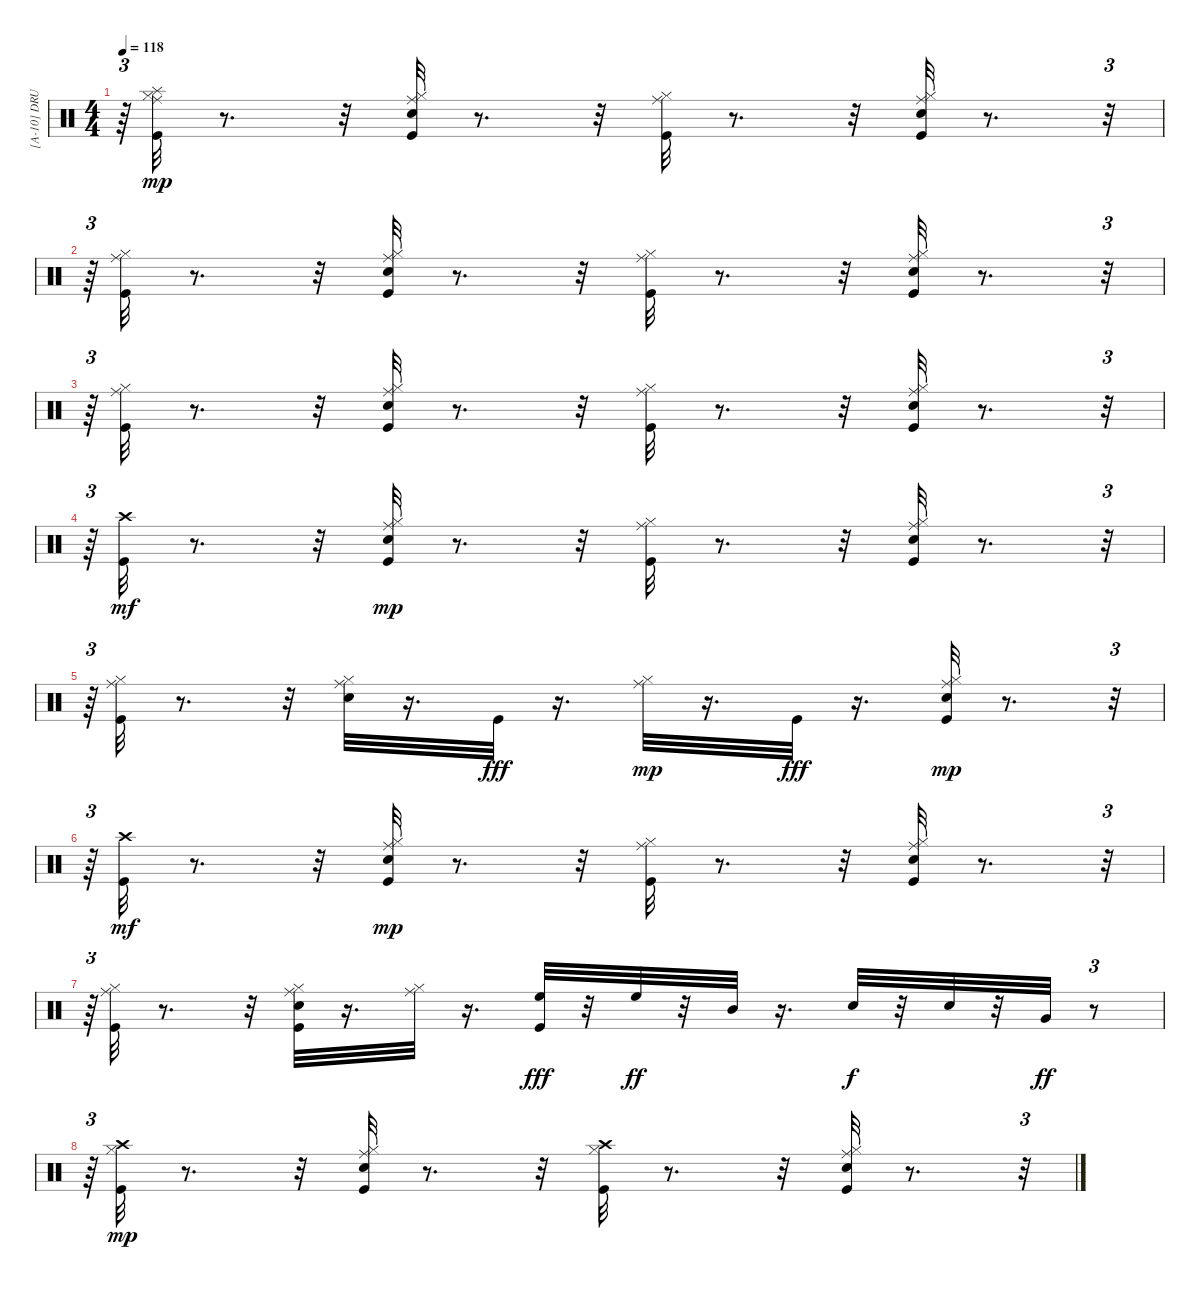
\track ("[A-10] DRUM" "[A-10] DRU") {instrument percussion}
\staff {score}
\articulation defaults
\ts (4 4)
\tempo 118
\clef neutral
\ks c
r.64{tu (3 2) dy mp} ("Kick (hit)" "Splash (hit)" "Ride (middle)" "Hi-Hat (closed)").32 r.8{d} r.32 ("Kick (hit)" "Ride (middle)" "Snare (hit) 2" "Hi-Hat (closed)").32 r.8{d} r.32 ("Kick (hit)" "Ride (middle)" "Hi-Hat (closed)").32 r.8{d} r.32 ("Kick (hit)" "Ride (middle)" "Snare (hit) 2" "Hi-Hat (closed)").32 r.8{d} r.32{tu (3 2)} |
r.64{tu (3 2)} ("Kick (hit)" "Ride (middle)" "Hi-Hat (closed)").32 r.8{d} r.32 ("Kick (hit)" "Ride (middle)" "Snare (hit) 2" "Hi-Hat (closed)").32 r.8{d} r.32 ("Kick (hit)" "Ride (middle)" "Hi-Hat (closed)").32 r.8{d} r.32 ("Kick (hit)" "Ride (middle)" "Snare (hit) 2" "Hi-Hat (closed)").32 r.8{d} r.32{tu (3 2)} |
r.64{tu (3 2)} ("Kick (hit)" "Ride (middle)" "Hi-Hat (closed)").32 r.8{d} r.32 ("Kick (hit)" "Ride (middle)" "Snare (hit) 2" "Hi-Hat (closed)").32 r.8{d} r.32 ("Kick (hit)" "Ride (middle)" "Hi-Hat (closed)").32 r.8{d} r.32 ("Kick (hit)" "Ride (middle)" "Snare (hit) 2" "Hi-Hat (closed)").32 r.8{d} r.32{tu (3 2)} |
r.64{tu (3 2)} ("Kick (hit)" "Crash high (hit)").32{dy mf} r.8{d} r.32 ("Kick (hit)" "Ride (middle)" "Snare (hit) 2" "Hi-Hat (closed)").32{dy mp} r.8{d} r.32 ("Kick (hit)" "Ride (middle)" "Hi-Hat (closed)").32 r.8{d} r.32 ("Kick (hit)" "Ride (middle)" "Snare (hit) 2" "Hi-Hat (closed)").32 r.8{d} r.32{tu (3 2)} |
r.64{tu (3 2)} ("Kick (hit)" "Ride (middle)" "Hi-Hat (closed)").32 r.8{d} r.32 ("Snare (hit) 2" "Ride (middle)" "Hi-Hat (closed)").32 r.16{d} "Kick (hit)".32{dy fff} r.16{d} ("Ride (middle)" "Hi-Hat (closed)").32{dy mp} r.16{d} "Kick (hit)".32{dy fff} r.16{d} ("Kick (hit)" "Ride (middle)" "Snare (hit) 2" "Hi-Hat (closed)").32{dy mp} r.8{d} r.32{tu (3 2)} |
r.64{tu (3 2)} ("Kick (hit)" "Crash high (hit)").32{dy mf} r.8{d} r.32 ("Kick (hit)" "Ride (middle)" "Snare (hit) 2" "Hi-Hat (closed)").32{dy mp} r.8{d} r.32 ("Kick (hit)" "Ride (middle)" "Hi-Hat (closed)").32 r.8{d} r.32 ("Kick (hit)" "Ride (middle)" "Snare (hit) 2" "Hi-Hat (closed)").32 r.8{d} r.32{tu (3 2)} |
r.64{tu (3 2)} ("Kick (hit)" "Ride (middle)" "Hi-Hat (closed)").32 r.8{d} r.32 ("Snare (hit) 2" "Ride (middle)" "Kick (hit)" "Hi-Hat (closed)").32 r.16{d} ("Ride (middle)" "Hi-Hat (closed)").32 r.16{d} ("High Floor Tom (hit)" "Kick (hit)").32{dy fff} r.32 "High Floor Tom (hit)".32{dy ff} r.32 "Mid Tom (hit)".32 r.16{d} "Snare (hit) 2".32{dy f} r.32 "Snare (hit) 2".32 r.32 "Very Low Tom (hit)".32{dy ff} r.8{tu (3 2)} |
r.64{tu (3 2)} ("Kick (hit)" "Crash high (hit)" "Hi-Hat (closed)").32{dy mp} r.8{d} r.32 ("Kick (hit)" "Ride (middle)" "Snare (hit) 2" "Hi-Hat (closed)").32 r.8{d} r.32 ("Kick (hit)" "Crash high (hit)" "Hi-Hat (closed)").32 r.8{d} r.32 ("Kick (hit)" "Ride (middle)" "Snare (hit) 2" "Hi-Hat (closed)").32 r.8{d} r.32{tu (3 2)}
